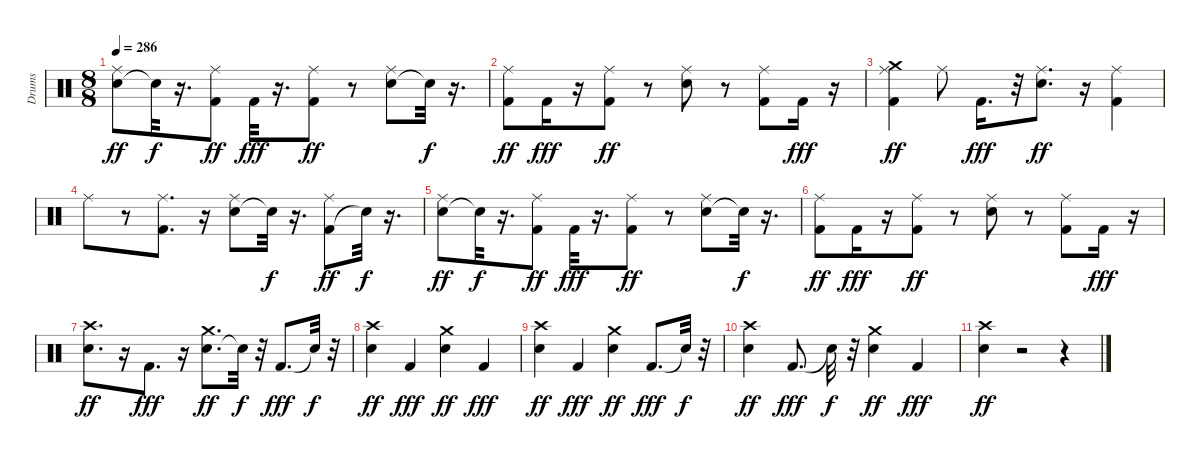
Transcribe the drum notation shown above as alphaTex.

\track ("Drums" "Drums") {instrument percussion}
\staff {score}
\articulation defaults
\ts (8 8)
\tempo 286
\clef neutral
\ks c
("Snare (hit) 2" "Ride (middle)").8{dy ff} "Snare (hit)"{t}.32{dy f} r.16{d} ("Kick (hit) 2" "Ride (middle)").8{dy ff} "Kick (hit) 2".32{dy fff} r.16{d} ("Kick (hit) 2" "Ride (middle)").8{dy ff} r.8 ("Snare (hit) 2" "Ride (middle)").8 "Snare (hit)"{t}.32{dy f} r.16{d} |
("Kick (hit) 2" "Ride (middle)").8{dy ff} "Kick (hit) 2".16{dy fff} r.16 ("Kick (hit) 2" "Ride (middle)").8{dy ff} r.8 ("Snare (hit) 2" "Ride (middle)").8 r.8 ("Kick (hit) 2" "Ride (middle)").8 "Kick (hit) 2".16{dy fff} r.16 |
("Kick (hit) 2" "Ride (middle)" "Crash medium (hit)").4{dy ff} "Ride (middle)".8 "Kick (hit) 2".16{d dy fff} r.32 ("Snare (hit) 2" "Ride (middle)").8{d dy ff} r.16 ("Kick (hit) 2" "Ride (middle)").4 |
"Ride (middle)".8 r.8 ("Kick (hit) 2" "Ride (middle)").8{d} r.16 ("Snare (hit) 2" "Ride (middle)").8 "Snare (hit)"{t}.32{dy f} r.16{d} ("Kick (hit) 2" "Ride (middle)").8{dy ff} "Snare (hit)"{t}.32{dy f} r.16{d} |
("Snare (hit) 2" "Ride (middle)").8{dy ff} "Snare (hit)"{t}.32{dy f} r.16{d} ("Kick (hit) 2" "Ride (middle)").8{dy ff} "Kick (hit) 2".32{dy fff} r.16{d} ("Kick (hit) 2" "Ride (middle)").8{dy ff} r.8 ("Snare (hit) 2" "Ride (middle)").8 "Snare (hit)"{t}.32{dy f} r.16{d} |
("Kick (hit) 2" "Ride (middle)").8{dy ff} "Kick (hit) 2".16{dy fff} r.16 ("Kick (hit) 2" "Ride (middle)").8{dy ff} r.8 ("Snare (hit) 2" "Ride (middle)").8 r.8 ("Kick (hit) 2" "Ride (middle)").8 "Kick (hit) 2".16{dy fff} r.16 |
("Snare (hit) 2" "Crash high (hit)").8{d dy ff} r.16 "Kick (hit) 2".8{d dy fff} r.16 ("Snare (hit) 2" "Crash medium (hit)").8{d dy ff} "Snare (hit)"{t}.32{dy f} r.32 "Kick (hit) 2".8{d dy fff} "Snare (hit)"{t}.32{dy f} r.32 |
("Snare (hit) 2" "Crash high (hit)").4{dy ff} "Kick (hit) 2".4{dy fff} ("Snare (hit) 2" "Crash medium (hit)").4{dy ff} "Kick (hit) 2".4{dy fff} |
("Snare (hit) 2" "Crash high (hit)").4{dy ff} "Kick (hit) 2".4{dy fff} ("Snare (hit) 2" "Crash medium (hit)").4{dy ff} "Kick (hit) 2".8{d dy fff} "Snare (hit)"{t}.32{dy f} r.32 |
("Snare (hit) 2" "Crash high (hit)").4{dy ff} "Kick (hit) 2".8{d dy fff} "Snare (hit)"{t}.32{dy f} r.32 ("Snare (hit) 2" "Crash medium (hit)").4{dy ff} "Kick (hit) 2".4{dy fff} |
("Snare (hit) 2" "Crash high (hit)").4{dy ff} r.2 r.4
